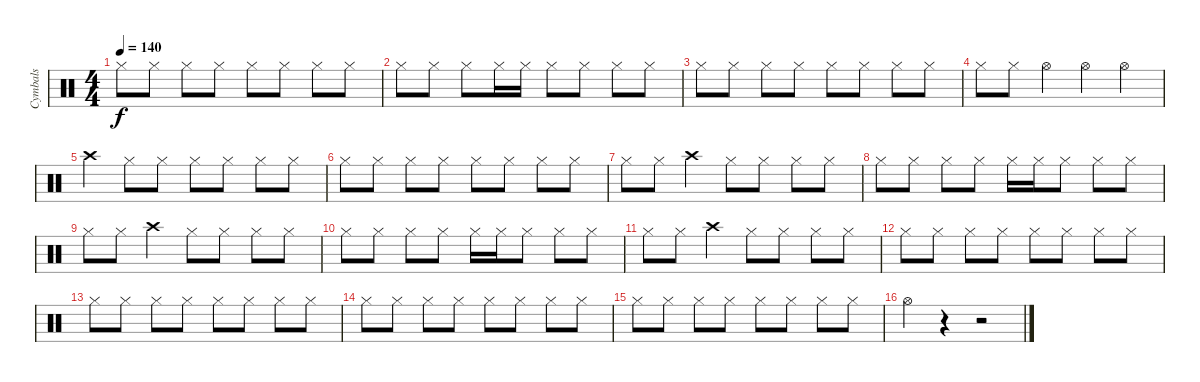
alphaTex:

\track ("Cymbals" "Cymbals") {instrument percussion}
\staff {score}
\articulation defaults
\ts (4 4)
\tempo 140
\clef neutral
\ks c "Hi-Hat (closed)".8{dy f} "Hi-Hat (closed)".8 "Hi-Hat (closed)".8 "Hi-Hat (closed)".8 "Hi-Hat (closed)".8 "Hi-Hat (closed)".8 "Hi-Hat (closed)".8 "Hi-Hat (closed)".8
|
"Hi-Hat (closed)".8 "Hi-Hat (closed)".8 "Hi-Hat (closed)".8 "Hi-Hat (closed)".16 "Hi-Hat (closed)".16 "Hi-Hat (closed)".8 "Hi-Hat (closed)".8 "Hi-Hat (closed)".8 "Hi-Hat (closed)".8 |
"Hi-Hat (closed)".8 "Hi-Hat (closed)".8 "Hi-Hat (closed)".8 "Hi-Hat (closed)".8 "Hi-Hat (closed)".8 "Hi-Hat (closed)".8 "Hi-Hat (closed)".8 "Hi-Hat (closed)".8 |
"Hi-Hat (closed)".8 "Hi-Hat (closed)".8 "Hi-Hat (open)".4 "Hi-Hat (open)".4 "Hi-Hat (open)".4 |
"Crash high (hit)".4 "Hi-Hat (closed)".8 "Hi-Hat (closed)".8 "Hi-Hat (closed)".8 "Hi-Hat (closed)".8 "Hi-Hat (closed)".8 "Hi-Hat (closed)".8 |
"Hi-Hat (closed)".8 "Hi-Hat (closed)".8 "Hi-Hat (closed)".8 "Hi-Hat (closed)".8 "Hi-Hat (closed)".8 "Hi-Hat (closed)".8 "Hi-Hat (closed)".8 "Hi-Hat (closed)".8 |
"Hi-Hat (closed)".8 "Hi-Hat (closed)".8 "Crash high (hit)".4 "Hi-Hat (closed)".8 "Hi-Hat (closed)".8 "Hi-Hat (closed)".8 "Hi-Hat (closed)".8 |
"Hi-Hat (closed)".8 "Hi-Hat (closed)".8 "Hi-Hat (closed)".8 "Hi-Hat (closed)".8 "Hi-Hat (closed)".16 "Hi-Hat (closed)".16 "Hi-Hat (closed)".8 "Hi-Hat (closed)".8 "Hi-Hat (closed)".8 |
"Hi-Hat (closed)".8 "Hi-Hat (closed)".8 "Crash high (hit)".4 "Hi-Hat (closed)".8 "Hi-Hat (closed)".8 "Hi-Hat (closed)".8 "Hi-Hat (closed)".8 |
"Hi-Hat (closed)".8 "Hi-Hat (closed)".8 "Hi-Hat (closed)".8 "Hi-Hat (closed)".8 "Hi-Hat (closed)".16 "Hi-Hat (closed)".16 "Hi-Hat (closed)".8 "Hi-Hat (closed)".8 "Hi-Hat (closed)".8 |
"Hi-Hat (closed)".8 "Hi-Hat (closed)".8 "Crash high (hit)".4 "Hi-Hat (closed)".8 "Hi-Hat (closed)".8 "Hi-Hat (closed)".8 "Hi-Hat (closed)".8 |
"Hi-Hat (closed)".8 "Hi-Hat (closed)".8 "Hi-Hat (closed)".8 "Hi-Hat (closed)".8 "Hi-Hat (closed)".8 "Hi-Hat (closed)".8 "Hi-Hat (closed)".8 "Hi-Hat (closed)".8 |
"Hi-Hat (closed)".8 "Hi-Hat (closed)".8 "Hi-Hat (closed)".8 "Hi-Hat (closed)".8 "Hi-Hat (closed)".8 "Hi-Hat (closed)".8 "Hi-Hat (closed)".8 "Hi-Hat (closed)".8 |
"Hi-Hat (closed)".8 "Hi-Hat (closed)".8 "Hi-Hat (closed)".8 "Hi-Hat (closed)".8 "Hi-Hat (closed)".8 "Hi-Hat (closed)".8 "Hi-Hat (closed)".8 "Hi-Hat (closed)".8 |
"Hi-Hat (closed)".8 "Hi-Hat (closed)".8 "Hi-Hat (closed)".8 "Hi-Hat (closed)".8 "Hi-Hat (closed)".8 "Hi-Hat (closed)".8 "Hi-Hat (closed)".8 "Hi-Hat (closed)".8 |
"Hi-Hat (open)".4 r.4 r.2
